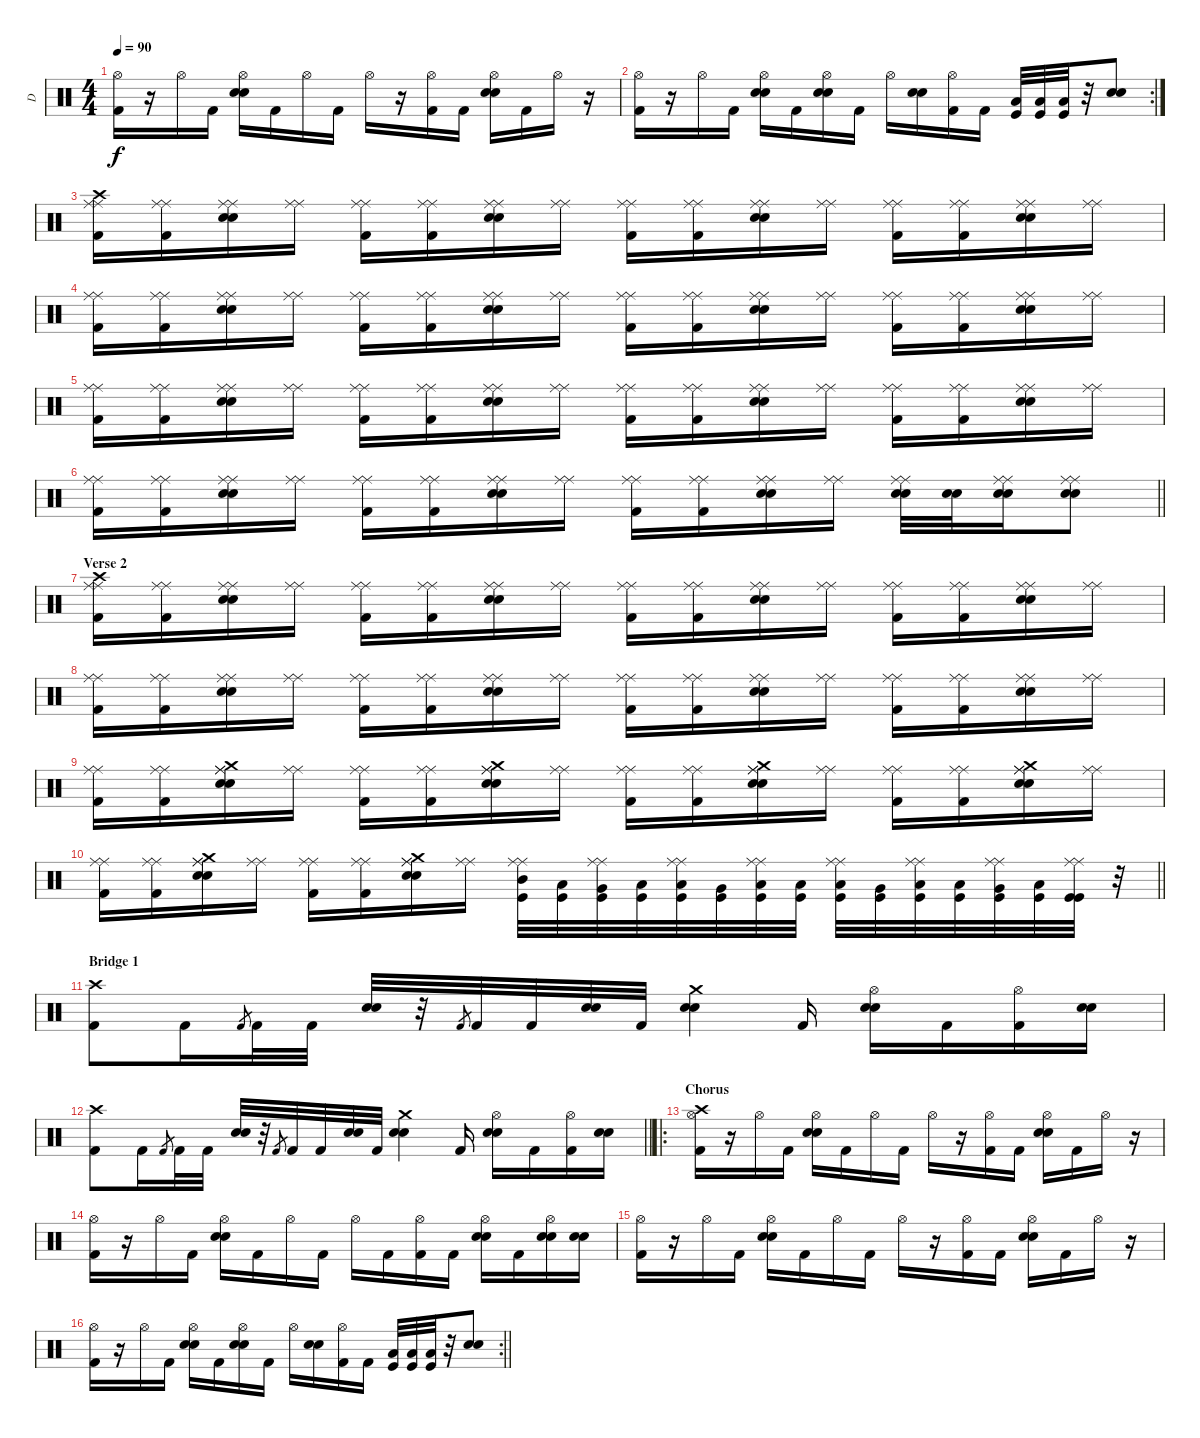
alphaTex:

\track ("D" "D") {instrument percussion}
\staff {score}
\articulation defaults
\ts (4 4)
\tempo 90
\clef neutral
\ks c
("Kick (hit) 2" "Hi-Hat (open)").16{dy f} r.16 "Hi-Hat (open)".16 "Kick (hit) 2".16 ("Electric Snare (hit)" "Electric Snare (hit)" "Hi-Hat (open)").16 "Kick (hit) 2".16 "Hi-Hat (open)".16 "Kick (hit) 2".16 "Hi-Hat (open)".16 r.16 ("Kick (hit) 2" "Hi-Hat (open)").16 "Kick (hit) 2".16 ("Electric Snare (hit)" "Electric Snare (hit)" "Hi-Hat (open)").16 "Kick (hit) 2".16 "Hi-Hat (open)".16 r.16 |
\rc 2
("Kick (hit) 2" "Hi-Hat (open)").16 r.16 "Hi-Hat (open)".16 "Kick (hit) 2".16 ("Electric Snare (hit)" "Electric Snare (hit)" "Hi-Hat (open)").16 "Kick (hit) 2".16 ("Electric Snare (hit)" "Electric Snare (hit)" "Hi-Hat (open)").16 "Kick (hit) 2".16 "Hi-Hat (open)".16 ("Electric Snare (hit)" "Electric Snare (hit)").16 ("Kick (hit) 2" "Hi-Hat (open)").16 "Kick (hit) 2".16 ("Kick (hit)" "Low Tom (hit)").32 ("Kick (hit)" "Low Tom (hit)").32 ("Kick (hit)" "Low Tom (hit)").32 r.32 ("Electric Snare (hit)" "Electric Snare (hit)").8 |
("Crash high (hit)" "Kick (hit) 2" "Ride (middle)" "Ride (middle)").16 ("Kick (hit) 2" "Ride (middle)" "Ride (middle)").16 ("Electric Snare (hit)" "Electric Snare (hit)" "Ride (middle)" "Ride (middle)").16 ("Ride (middle)" "Ride (middle)").16 ("Kick (hit) 2" "Ride (middle)" "Ride (middle)").16 ("Kick (hit) 2" "Ride (middle)" "Ride (middle)").16 ("Electric Snare (hit)" "Electric Snare (hit)" "Ride (middle)" "Ride (middle)").16 ("Ride (middle)" "Ride (middle)").16 ("Kick (hit) 2" "Ride (middle)" "Ride (middle)").16 ("Kick (hit) 2" "Ride (middle)" "Ride (middle)").16 ("Electric Snare (hit)" "Electric Snare (hit)" "Ride (middle)" "Ride (middle)").16 ("Ride (middle)" "Ride (middle)").16 ("Kick (hit) 2" "Ride (middle)" "Ride (middle)").16 ("Kick (hit) 2" "Ride (middle)" "Ride (middle)").16 ("Electric Snare (hit)" "Electric Snare (hit)" "Ride (middle)" "Ride (middle)").16 ("Ride (middle)" "Ride (middle)").16 |
("Kick (hit) 2" "Ride (middle)" "Ride (middle)").16 ("Kick (hit) 2" "Ride (middle)" "Ride (middle)").16 ("Electric Snare (hit)" "Electric Snare (hit)" "Ride (middle)" "Ride (middle)").16 ("Ride (middle)" "Ride (middle)").16 ("Kick (hit) 2" "Ride (middle)" "Ride (middle)").16 ("Kick (hit) 2" "Ride (middle)" "Ride (middle)").16 ("Electric Snare (hit)" "Electric Snare (hit)" "Ride (middle)" "Ride (middle)").16 ("Ride (middle)" "Ride (middle)").16 ("Kick (hit) 2" "Ride (middle)" "Ride (middle)").16 ("Kick (hit) 2" "Ride (middle)" "Ride (middle)").16 ("Electric Snare (hit)" "Electric Snare (hit)" "Ride (middle)" "Ride (middle)").16 ("Ride (middle)" "Ride (middle)").16 ("Kick (hit) 2" "Ride (middle)" "Ride (middle)").16 ("Kick (hit) 2" "Ride (middle)" "Ride (middle)").16 ("Electric Snare (hit)" "Electric Snare (hit)" "Ride (middle)" "Ride (middle)").16 ("Ride (middle)" "Ride (middle)").16 |
("Kick (hit) 2" "Ride (middle)" "Ride (middle)").16 ("Kick (hit) 2" "Ride (middle)" "Ride (middle)").16 ("Electric Snare (hit)" "Electric Snare (hit)" "Ride (middle)" "Ride (middle)").16 ("Ride (middle)" "Ride (middle)").16 ("Kick (hit) 2" "Ride (middle)" "Ride (middle)").16 ("Kick (hit) 2" "Ride (middle)" "Ride (middle)").16 ("Electric Snare (hit)" "Electric Snare (hit)" "Ride (middle)" "Ride (middle)").16 ("Ride (middle)" "Ride (middle)").16 ("Kick (hit) 2" "Ride (middle)" "Ride (middle)").16 ("Kick (hit) 2" "Ride (middle)" "Ride (middle)").16 ("Electric Snare (hit)" "Electric Snare (hit)" "Ride (middle)" "Ride (middle)").16 ("Ride (middle)" "Ride (middle)").16 ("Kick (hit) 2" "Ride (middle)" "Ride (middle)").16 ("Kick (hit) 2" "Ride (middle)" "Ride (middle)").16 ("Electric Snare (hit)" "Electric Snare (hit)" "Ride (middle)" "Ride (middle)").16 ("Ride (middle)" "Ride (middle)").16 |
\barLineRight lightlight
("Kick (hit) 2" "Ride (middle)" "Ride (middle)").16 ("Kick (hit) 2" "Ride (middle)" "Ride (middle)").16 ("Electric Snare (hit)" "Electric Snare (hit)" "Ride (middle)" "Ride (middle)").16 ("Ride (middle)" "Ride (middle)").16 ("Kick (hit) 2" "Ride (middle)" "Ride (middle)").16 ("Kick (hit) 2" "Ride (middle)" "Ride (middle)").16 ("Electric Snare (hit)" "Electric Snare (hit)" "Ride (middle)" "Ride (middle)").16 ("Ride (middle)" "Ride (middle)").16 ("Kick (hit) 2" "Ride (middle)" "Ride (middle)").16 ("Kick (hit) 2" "Ride (middle)" "Ride (middle)").16 ("Electric Snare (hit)" "Electric Snare (hit)" "Ride (middle)" "Ride (middle)").16 ("Ride (middle)" "Ride (middle)").16 ("Electric Snare (hit)" "Electric Snare (hit)" "Ride (middle)" "Ride (middle)").32 ("Electric Snare (hit)" "Electric Snare (hit)").32 ("Electric Snare (hit)" "Electric Snare (hit)" "Ride (middle)" "Ride (middle)").16 ("Electric Snare (hit)" "Electric Snare (hit)" "Ride (middle)" "Ride (middle)").8 |
\section ("" "Verse 2")
("Crash high (hit)" "Kick (hit) 2" "Ride (middle)" "Ride (middle)").16 ("Kick (hit) 2" "Ride (middle)" "Ride (middle)").16 ("Electric Snare (hit)" "Electric Snare (hit)" "Ride (middle)" "Ride (middle)").16 ("Ride (middle)" "Ride (middle)").16 ("Kick (hit) 2" "Ride (middle)" "Ride (middle)").16 ("Kick (hit) 2" "Ride (middle)" "Ride (middle)").16 ("Electric Snare (hit)" "Electric Snare (hit)" "Ride (middle)" "Ride (middle)").16 ("Ride (middle)" "Ride (middle)").16 ("Kick (hit) 2" "Ride (middle)" "Ride (middle)").16 ("Kick (hit) 2" "Ride (middle)" "Ride (middle)").16 ("Electric Snare (hit)" "Electric Snare (hit)" "Ride (middle)" "Ride (middle)").16 ("Ride (middle)" "Ride (middle)").16 ("Kick (hit) 2" "Ride (middle)" "Ride (middle)").16 ("Kick (hit) 2" "Ride (middle)" "Ride (middle)").16 ("Electric Snare (hit)" "Electric Snare (hit)" "Ride (middle)" "Ride (middle)").16 ("Ride (middle)" "Ride (middle)").16 |
("Kick (hit) 2" "Ride (middle)" "Ride (middle)").16 ("Kick (hit) 2" "Ride (middle)" "Ride (middle)").16 ("Electric Snare (hit)" "Electric Snare (hit)" "Ride (middle)" "Ride (middle)").16 ("Ride (middle)" "Ride (middle)").16 ("Kick (hit) 2" "Ride (middle)" "Ride (middle)").16 ("Kick (hit) 2" "Ride (middle)" "Ride (middle)").16 ("Electric Snare (hit)" "Electric Snare (hit)" "Ride (middle)" "Ride (middle)").16 ("Ride (middle)" "Ride (middle)").16 ("Kick (hit) 2" "Ride (middle)" "Ride (middle)").16 ("Kick (hit) 2" "Ride (middle)" "Ride (middle)").16 ("Electric Snare (hit)" "Electric Snare (hit)" "Ride (middle)" "Ride (middle)").16 ("Ride (middle)" "Ride (middle)").16 ("Kick (hit) 2" "Ride (middle)" "Ride (middle)").16 ("Kick (hit) 2" "Ride (middle)" "Ride (middle)").16 ("Electric Snare (hit)" "Electric Snare (hit)" "Ride (middle)" "Ride (middle)").16 ("Ride (middle)" "Ride (middle)").16 |
("Kick (hit) 2" "Ride (middle)" "Ride (middle)").16 ("Kick (hit) 2" "Ride (middle)" "Ride (middle)").16 ("Crash medium (hit)" "Electric Snare (hit)" "Electric Snare (hit)" "Ride (middle)" "Ride (middle)").16 ("Ride (middle)" "Ride (middle)").16 ("Kick (hit) 2" "Ride (middle)" "Ride (middle)").16 ("Kick (hit) 2" "Ride (middle)" "Ride (middle)").16 ("Crash medium (hit)" "Electric Snare (hit)" "Electric Snare (hit)" "Ride (middle)" "Ride (middle)").16 ("Ride (middle)" "Ride (middle)").16 ("Kick (hit) 2" "Ride (middle)" "Ride (middle)").16 ("Kick (hit) 2" "Ride (middle)" "Ride (middle)").16 ("Crash medium (hit)" "Electric Snare (hit)" "Electric Snare (hit)" "Ride (middle)" "Ride (middle)").16 ("Ride (middle)" "Ride (middle)").16 ("Kick (hit) 2" "Ride (middle)" "Ride (middle)").16 ("Kick (hit) 2" "Ride (middle)" "Ride (middle)").16 ("Crash medium (hit)" "Electric Snare (hit)" "Electric Snare (hit)" "Ride (middle)" "Ride (middle)").16 ("Ride (middle)" "Ride (middle)").16 |
\barLineRight lightlight
("Kick (hit) 2" "Ride (middle)" "Ride (middle)").16 ("Kick (hit) 2" "Ride (middle)" "Ride (middle)").16 ("Crash medium (hit)" "Electric Snare (hit)" "Electric Snare (hit)" "Ride (middle)" "Ride (middle)").16 ("Ride (middle)" "Ride (middle)").16 ("Kick (hit) 2" "Ride (middle)" "Ride (middle)").16 ("Kick (hit) 2" "Ride (middle)" "Ride (middle)").16 ("Crash medium (hit)" "Electric Snare (hit)" "Electric Snare (hit)" "Ride (middle)" "Ride (middle)").16 ("Ride (middle)" "Ride (middle)").16 ("Kick (hit)" "Mid Tom (hit)" "Ride (middle)" "Ride (middle)").32 ("Kick (hit)" "Low Tom (hit)").32 ("Kick (hit)" "Very Low Tom (hit)" "Ride (middle)" "Ride (middle)").32 ("Kick (hit)" "Low Floor Tom (hit)").32 ("Kick (hit)" "Low Tom (hit)" "Ride (middle)" "Ride (middle)").32 ("Kick (hit)" "Very Low Tom (hit)").32 ("Kick (hit)" "Low Floor Tom (hit)" "Ride (middle)" "Ride (middle)").32 ("Kick (hit)" "Low Floor Tom (hit)").32 ("Kick (hit)" "Low Tom (hit)" "Ride (middle)" "Ride (middle)").32 ("Kick (hit)" "Very Low Tom (hit)").32 ("Kick (hit)" "Low Floor Tom (hit)" "Ride (middle)" "Ride (middle)").32 ("Kick (hit)" "Low Floor Tom (hit)").32 ("Kick (hit)" "Very Low Tom (hit)" "Ride (middle)" "Ride (middle)").32 ("Kick (hit)" "Low Floor Tom (hit)").32 ("Kick (hit)" "Kick (hit)" "Ride (middle)" "Ride (middle)").32 r.32 |
\section ("" "Bridge 1")
("Crash high (hit)" "Kick (hit) 2").8 "Kick (hit) 2".16 "Kick (hit) 2".8{gr} "Kick (hit) 2".32 "Kick (hit) 2".32 ("Electric Snare (hit)" "Electric Snare (hit)").32 r.32 "Kick (hit) 2".8{gr} "Kick (hit) 2".32 "Kick (hit) 2".32 ("Electric Snare (hit)" "Electric Snare (hit)").32 "Kick (hit) 2".32 ("Crash medium (hit)" "Electric Snare (hit)" "Electric Snare (hit)").4 "Kick (hit) 2".16 ("Hi-Hat (open)" "Electric Snare (hit)" "Electric Snare (hit)").16 "Kick (hit) 2".16 ("Hi-Hat (open)" "Kick (hit) 2").16 ("Electric Snare (hit)" "Electric Snare (hit)").16 |
\barLineRight lightlight
("Crash high (hit)" "Kick (hit) 2").8 "Kick (hit) 2".16 "Kick (hit) 2".8{gr} "Kick (hit) 2".32 "Kick (hit) 2".32 ("Electric Snare (hit)" "Electric Snare (hit)").32 r.32 "Kick (hit) 2".8{gr} "Kick (hit) 2".32 "Kick (hit) 2".32 ("Electric Snare (hit)" "Electric Snare (hit)").32 "Kick (hit) 2".32 ("Crash medium (hit)" "Electric Snare (hit)" "Electric Snare (hit)").4 "Kick (hit) 2".16 ("Hi-Hat (open)" "Electric Snare (hit)" "Electric Snare (hit)").16 "Kick (hit) 2".16 ("Hi-Hat (open)" "Kick (hit) 2").16 ("Electric Snare (hit)" "Electric Snare (hit)").16 |
\ro
\section ("" "Chorus")
("Crash high (hit)" "Kick (hit) 2" "Hi-Hat (open)").16 r.16 "Hi-Hat (open)".16 "Kick (hit) 2".16 ("Electric Snare (hit)" "Electric Snare (hit)" "Hi-Hat (open)").16 "Kick (hit) 2".16 "Hi-Hat (open)".16 "Kick (hit) 2".16 "Hi-Hat (open)".16 r.16 ("Kick (hit) 2" "Hi-Hat (open)").16 "Kick (hit) 2".16 ("Electric Snare (hit)" "Electric Snare (hit)" "Hi-Hat (open)").16 "Kick (hit) 2".16 "Hi-Hat (open)".16 r.16 |
("Kick (hit) 2" "Hi-Hat (open)").16 r.16 "Hi-Hat (open)".16 "Kick (hit) 2".16 ("Electric Snare (hit)" "Electric Snare (hit)" "Hi-Hat (open)").16 "Kick (hit) 2".16 "Hi-Hat (open)".16 "Kick (hit) 2".16 "Hi-Hat (open)".16 "Kick (hit) 2".16 ("Kick (hit) 2" "Hi-Hat (open)").16 "Kick (hit) 2".16 ("Electric Snare (hit)" "Electric Snare (hit)" "Hi-Hat (open)").16 "Kick (hit) 2".16 ("Electric Snare (hit)" "Electric Snare (hit)" "Hi-Hat (open)").16 ("Electric Snare (hit)" "Electric Snare (hit)").16 |
("Kick (hit) 2" "Hi-Hat (open)").16 r.16 "Hi-Hat (open)".16 "Kick (hit) 2".16 ("Electric Snare (hit)" "Electric Snare (hit)" "Hi-Hat (open)").16 "Kick (hit) 2".16 "Hi-Hat (open)".16 "Kick (hit) 2".16 "Hi-Hat (open)".16 r.16 ("Kick (hit) 2" "Hi-Hat (open)").16 "Kick (hit) 2".16 ("Electric Snare (hit)" "Electric Snare (hit)" "Hi-Hat (open)").16 "Kick (hit) 2".16 "Hi-Hat (open)".16 r.16 |
\rc 2
\barLineRight lightlight
("Kick (hit) 2" "Hi-Hat (open)").16 r.16 "Hi-Hat (open)".16 "Kick (hit) 2".16 ("Electric Snare (hit)" "Electric Snare (hit)" "Hi-Hat (open)").16 "Kick (hit) 2".16 ("Electric Snare (hit)" "Electric Snare (hit)" "Hi-Hat (open)").16 "Kick (hit) 2".16 "Hi-Hat (open)".16 ("Electric Snare (hit)" "Electric Snare (hit)").16 ("Kick (hit) 2" "Hi-Hat (open)").16 "Kick (hit) 2".16 ("Kick (hit)" "Low Tom (hit)").32 ("Kick (hit)" "Low Tom (hit)").32 ("Kick (hit)" "Low Tom (hit)").32 r.32 ("Electric Snare (hit)" "Electric Snare (hit)").8
